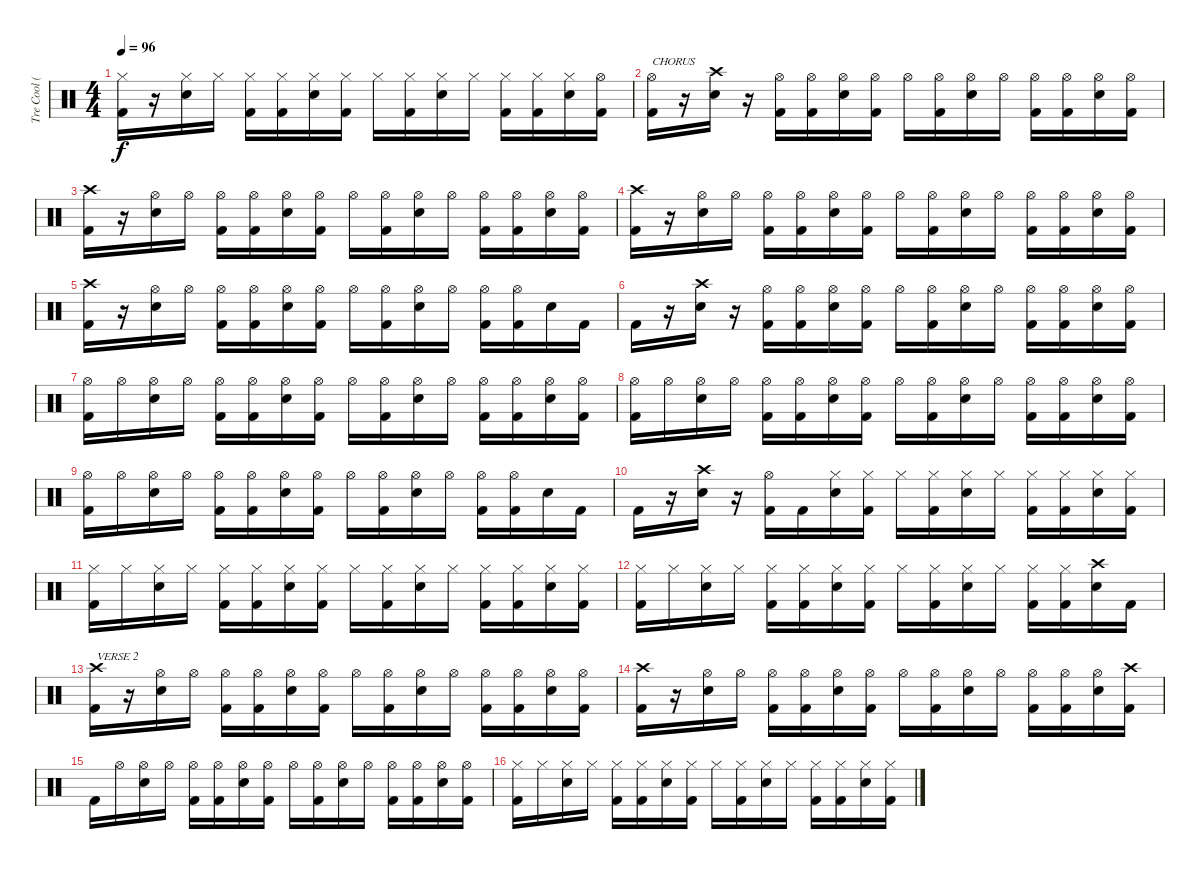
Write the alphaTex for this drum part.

\track ("Tre Cool (Drums)" "Tre Cool (") {instrument percussion}
\staff {score}
\articulation defaults
\ts (4 4)
\tempo 96
\clef neutral
\ks c
("Hi-Hat (closed)" "Kick (hit) 2").16{dy f} r.16 ("Hi-Hat (closed)" "Electric Snare (hit)").16 "Hi-Hat (closed)".16 ("Hi-Hat (closed)" "Kick (hit) 2").16 ("Hi-Hat (closed)" "Kick (hit) 2").16 ("Hi-Hat (closed)" "Electric Snare (hit)").16 ("Hi-Hat (closed)" "Kick (hit) 2").16 "Hi-Hat (closed)".16 ("Hi-Hat (closed)" "Kick (hit) 2").16 ("Hi-Hat (closed)" "Electric Snare (hit)").16 "Hi-Hat (closed)".16 ("Hi-Hat (closed)" "Kick (hit) 2").16 ("Hi-Hat (closed)" "Kick (hit) 2").16 ("Hi-Hat (closed)" "Electric Snare (hit)").16 ("Hi-Hat (open)" "Kick (hit) 2").16 |
("Hi-Hat (open)" "Kick (hit) 2").16{txt "CHORUS"} r.16 ("Crash high (hit)" "Electric Snare (hit)").16 r.16 ("Hi-Hat (open)" "Kick (hit) 2").16 ("Hi-Hat (open)" "Kick (hit) 2").16 ("Hi-Hat (open)" "Electric Snare (hit)").16 ("Hi-Hat (open)" "Kick (hit) 2").16 "Hi-Hat (open)".16 ("Hi-Hat (open)" "Kick (hit) 2").16 ("Hi-Hat (open)" "Electric Snare (hit)").16 "Hi-Hat (open)".16 ("Hi-Hat (open)" "Kick (hit) 2").16 ("Hi-Hat (open)" "Kick (hit) 2").16 ("Hi-Hat (open)" "Electric Snare (hit)").16 ("Hi-Hat (open)" "Kick (hit) 2").16 |
("Crash high (hit)" "Kick (hit) 2").16 r.16 ("Hi-Hat (open)" "Electric Snare (hit)").16 "Hi-Hat (open)".16 ("Hi-Hat (open)" "Kick (hit) 2").16 ("Hi-Hat (open)" "Kick (hit) 2").16 ("Hi-Hat (open)" "Electric Snare (hit)").16 ("Hi-Hat (open)" "Kick (hit) 2").16 "Hi-Hat (open)".16 ("Hi-Hat (open)" "Kick (hit) 2").16 ("Hi-Hat (open)" "Electric Snare (hit)").16 "Hi-Hat (open)".16 ("Hi-Hat (open)" "Kick (hit) 2").16 ("Hi-Hat (open)" "Kick (hit) 2").16 ("Hi-Hat (open)" "Electric Snare (hit)").16 ("Hi-Hat (open)" "Kick (hit) 2").16 |
("Crash high (hit)" "Kick (hit) 2").16 r.16 ("Hi-Hat (open)" "Electric Snare (hit)").16 "Hi-Hat (open)".16 ("Hi-Hat (open)" "Kick (hit) 2").16 ("Hi-Hat (open)" "Kick (hit) 2").16 ("Hi-Hat (open)" "Electric Snare (hit)").16 ("Hi-Hat (open)" "Kick (hit) 2").16 "Hi-Hat (open)".16 ("Hi-Hat (open)" "Kick (hit) 2").16 ("Hi-Hat (open)" "Electric Snare (hit)").16 "Hi-Hat (open)".16 ("Hi-Hat (open)" "Kick (hit) 2").16 ("Hi-Hat (open)" "Kick (hit) 2").16 ("Hi-Hat (open)" "Electric Snare (hit)").16 ("Hi-Hat (open)" "Kick (hit) 2").16 |
("Crash high (hit)" "Kick (hit) 2").16 r.16 ("Hi-Hat (open)" "Electric Snare (hit)").16 "Hi-Hat (open)".16 ("Hi-Hat (open)" "Kick (hit) 2").16 ("Hi-Hat (open)" "Kick (hit) 2").16 ("Hi-Hat (open)" "Electric Snare (hit)").16 ("Hi-Hat (open)" "Kick (hit) 2").16 "Hi-Hat (open)".16 ("Hi-Hat (open)" "Kick (hit) 2").16 ("Hi-Hat (open)" "Electric Snare (hit)").16 "Hi-Hat (open)".16 ("Hi-Hat (open)" "Kick (hit) 2").16 ("Hi-Hat (open)" "Kick (hit) 2").16 "Electric Snare (hit)".16 "Kick (hit) 2".16 |
"Kick (hit) 2".16 r.16 ("Crash high (hit)" "Electric Snare (hit)").16 r.16 ("Hi-Hat (open)" "Kick (hit) 2").16 ("Hi-Hat (open)" "Kick (hit) 2").16 ("Hi-Hat (open)" "Electric Snare (hit)").16 ("Hi-Hat (open)" "Kick (hit) 2").16 "Hi-Hat (open)".16 ("Hi-Hat (open)" "Kick (hit) 2").16 ("Hi-Hat (open)" "Electric Snare (hit)").16 "Hi-Hat (open)".16 ("Hi-Hat (open)" "Kick (hit) 2").16 ("Hi-Hat (open)" "Kick (hit) 2").16 ("Hi-Hat (open)" "Electric Snare (hit)").16 ("Hi-Hat (open)" "Kick (hit) 2").16 |
("Hi-Hat (open)" "Kick (hit) 2").16 "Hi-Hat (open)".16 ("Hi-Hat (open)" "Electric Snare (hit)").16 "Hi-Hat (open)".16 ("Hi-Hat (open)" "Kick (hit) 2").16 ("Hi-Hat (open)" "Kick (hit) 2").16 ("Hi-Hat (open)" "Electric Snare (hit)").16 ("Hi-Hat (open)" "Kick (hit) 2").16 "Hi-Hat (open)".16 ("Hi-Hat (open)" "Kick (hit) 2").16 ("Hi-Hat (open)" "Electric Snare (hit)").16 "Hi-Hat (open)".16 ("Hi-Hat (open)" "Kick (hit) 2").16 ("Hi-Hat (open)" "Kick (hit) 2").16 ("Hi-Hat (open)" "Electric Snare (hit)").16 ("Hi-Hat (open)" "Kick (hit) 2").16 |
("Hi-Hat (open)" "Kick (hit) 2").16 "Hi-Hat (open)".16 ("Hi-Hat (open)" "Electric Snare (hit)").16 "Hi-Hat (open)".16 ("Hi-Hat (open)" "Kick (hit) 2").16 ("Hi-Hat (open)" "Kick (hit) 2").16 ("Hi-Hat (open)" "Electric Snare (hit)").16 ("Hi-Hat (open)" "Kick (hit) 2").16 "Hi-Hat (open)".16 ("Hi-Hat (open)" "Kick (hit) 2").16 ("Hi-Hat (open)" "Electric Snare (hit)").16 "Hi-Hat (open)".16 ("Hi-Hat (open)" "Kick (hit) 2").16 ("Hi-Hat (open)" "Kick (hit) 2").16 ("Hi-Hat (open)" "Electric Snare (hit)").16 ("Hi-Hat (open)" "Kick (hit) 2").16 |
("Hi-Hat (open)" "Kick (hit) 2").16 "Hi-Hat (open)".16 ("Hi-Hat (open)" "Electric Snare (hit)").16 "Hi-Hat (open)".16 ("Hi-Hat (open)" "Kick (hit) 2").16 ("Hi-Hat (open)" "Kick (hit) 2").16 ("Hi-Hat (open)" "Electric Snare (hit)").16 ("Hi-Hat (open)" "Kick (hit) 2").16 "Hi-Hat (open)".16 ("Hi-Hat (open)" "Kick (hit) 2").16 ("Hi-Hat (open)" "Electric Snare (hit)").16 "Hi-Hat (open)".16 ("Hi-Hat (open)" "Kick (hit) 2").16 ("Hi-Hat (open)" "Kick (hit) 2").16 "Electric Snare (hit)".16 "Kick (hit) 2".16 |
"Kick (hit) 2".16 r.16 ("Crash high (hit)" "Electric Snare (hit)").16 r.16 ("Hi-Hat (open)" "Kick (hit) 2").16 "Kick (hit) 2".16 ("Hi-Hat (closed)" "Electric Snare (hit)").16 ("Hi-Hat (closed)" "Kick (hit) 2").16 "Hi-Hat (closed)".16 ("Hi-Hat (closed)" "Kick (hit) 2").16 ("Hi-Hat (closed)" "Electric Snare (hit)").16 "Hi-Hat (closed)".16 ("Hi-Hat (closed)" "Kick (hit) 2").16 ("Hi-Hat (closed)" "Kick (hit) 2").16 ("Hi-Hat (closed)" "Electric Snare (hit)").16 ("Hi-Hat (closed)" "Kick (hit) 2").16 |
("Hi-Hat (closed)" "Kick (hit) 2").16 "Hi-Hat (closed)".16 ("Hi-Hat (closed)" "Electric Snare (hit)").16 "Hi-Hat (closed)".16 ("Hi-Hat (closed)" "Kick (hit) 2").16 ("Hi-Hat (closed)" "Kick (hit) 2").16 ("Hi-Hat (closed)" "Electric Snare (hit)").16 ("Hi-Hat (closed)" "Kick (hit) 2").16 "Hi-Hat (closed)".16 ("Hi-Hat (closed)" "Kick (hit) 2").16 ("Hi-Hat (closed)" "Electric Snare (hit)").16 "Hi-Hat (closed)".16 ("Hi-Hat (closed)" "Kick (hit) 2").16 ("Hi-Hat (closed)" "Kick (hit) 2").16 ("Hi-Hat (closed)" "Electric Snare (hit)").16 ("Hi-Hat (closed)" "Kick (hit) 2").16 |
("Hi-Hat (closed)" "Kick (hit) 2").16 "Hi-Hat (closed)".16 ("Hi-Hat (closed)" "Electric Snare (hit)").16 "Hi-Hat (closed)".16 ("Hi-Hat (closed)" "Kick (hit) 2").16 ("Hi-Hat (closed)" "Kick (hit) 2").16 ("Hi-Hat (closed)" "Electric Snare (hit)").16 ("Hi-Hat (closed)" "Kick (hit) 2").16 "Hi-Hat (closed)".16 ("Hi-Hat (closed)" "Kick (hit) 2").16 ("Hi-Hat (closed)" "Electric Snare (hit)").16 "Hi-Hat (closed)".16 ("Hi-Hat (closed)" "Kick (hit) 2").16 ("Hi-Hat (closed)" "Kick (hit) 2").16 ("Crash high (hit)" "Electric Snare (hit)").16 "Kick (hit) 2".16 |
("Crash high (hit)" "Kick (hit) 2").16{txt "VERSE 2"} r.16 ("Hi-Hat (open)" "Electric Snare (hit)").16 "Hi-Hat (open)".16 ("Hi-Hat (open)" "Kick (hit) 2").16 ("Hi-Hat (open)" "Kick (hit) 2").16 ("Hi-Hat (open)" "Electric Snare (hit)").16 ("Hi-Hat (open)" "Kick (hit) 2").16 "Hi-Hat (open)".16 ("Hi-Hat (open)" "Kick (hit) 2").16 ("Hi-Hat (open)" "Electric Snare (hit)").16 "Hi-Hat (open)".16 ("Hi-Hat (open)" "Kick (hit) 2").16 ("Hi-Hat (open)" "Kick (hit) 2").16 ("Hi-Hat (open)" "Electric Snare (hit)").16 ("Hi-Hat (open)" "Kick (hit) 2").16 |
("Crash high (hit)" "Kick (hit) 2").16 r.16 ("Hi-Hat (open)" "Electric Snare (hit)").16 "Hi-Hat (open)".16 ("Hi-Hat (open)" "Kick (hit) 2").16 ("Hi-Hat (open)" "Kick (hit) 2").16 ("Hi-Hat (open)" "Electric Snare (hit)").16 ("Hi-Hat (open)" "Kick (hit) 2").16 "Hi-Hat (open)".16 ("Hi-Hat (open)" "Kick (hit) 2").16 ("Hi-Hat (open)" "Electric Snare (hit)").16 "Hi-Hat (open)".16 ("Hi-Hat (open)" "Kick (hit) 2").16 ("Hi-Hat (open)" "Kick (hit) 2").16 ("Hi-Hat (open)" "Electric Snare (hit)").16 ("Crash high (hit)" "Kick (hit) 2").16 |
"Kick (hit) 2".16 "Hi-Hat (open)".16 ("Hi-Hat (open)" "Electric Snare (hit)").16 "Hi-Hat (open)".16 ("Hi-Hat (open)" "Kick (hit) 2").16 ("Hi-Hat (open)" "Kick (hit) 2").16 ("Hi-Hat (open)" "Electric Snare (hit)").16 ("Hi-Hat (open)" "Kick (hit) 2").16 "Hi-Hat (open)".16 ("Hi-Hat (open)" "Kick (hit) 2").16 ("Hi-Hat (open)" "Electric Snare (hit)").16 "Hi-Hat (open)".16 ("Hi-Hat (open)" "Kick (hit) 2").16 ("Hi-Hat (open)" "Kick (hit) 2").16 ("Hi-Hat (open)" "Electric Snare (hit)").16 ("Hi-Hat (open)" "Kick (hit) 2").16 |
("Hi-Hat (closed)" "Kick (hit) 2").16 "Hi-Hat (closed)".16 ("Hi-Hat (closed)" "Electric Snare (hit)").16 "Hi-Hat (closed)".16 ("Hi-Hat (closed)" "Kick (hit) 2").16 ("Hi-Hat (closed)" "Kick (hit) 2").16 ("Hi-Hat (closed)" "Electric Snare (hit)").16 ("Hi-Hat (closed)" "Kick (hit) 2").16 "Hi-Hat (closed)".16 ("Hi-Hat (closed)" "Kick (hit) 2").16 ("Hi-Hat (closed)" "Electric Snare (hit)").16 "Hi-Hat (closed)".16 ("Hi-Hat (closed)" "Kick (hit) 2").16 ("Hi-Hat (closed)" "Kick (hit) 2").16 ("Hi-Hat (closed)" "Electric Snare (hit)").16 ("Hi-Hat (closed)" "Kick (hit) 2").16
